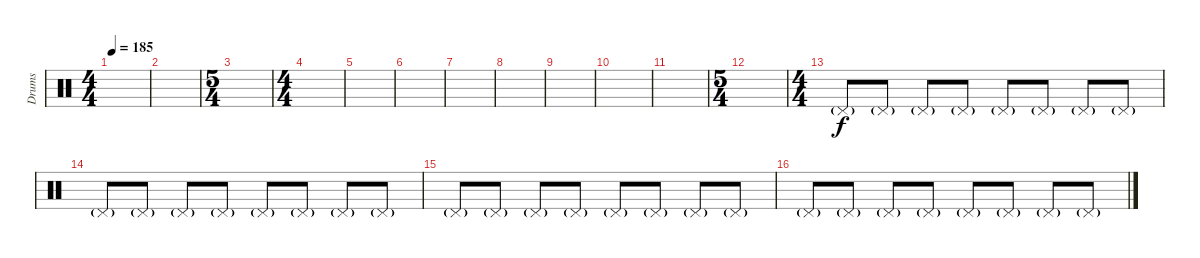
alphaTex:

\track ("Drums" "Drums") {instrument percussion}
\staff {score}
\articulation defaults
\ts (4 4)
\tempo 185
\clef neutral
\ks c
|
|
\ts (5 4)
|
\ts (4 4)
|
|
|
|
|
|
|
|
\ts (5 4)
|
\ts (4 4)
"Pedal Hi-Hat (hit)"{g}.8 "Pedal Hi-Hat (hit)"{g}.8 "Pedal Hi-Hat (hit)"{g}.8 "Pedal Hi-Hat (hit)"{g}.8 "Pedal Hi-Hat (hit)"{g}.8 "Pedal Hi-Hat (hit)"{g}.8 "Pedal Hi-Hat (hit)"{g}.8 "Pedal Hi-Hat (hit)"{g}.8 |
"Pedal Hi-Hat (hit)"{g}.8 "Pedal Hi-Hat (hit)"{g}.8 "Pedal Hi-Hat (hit)"{g}.8 "Pedal Hi-Hat (hit)"{g}.8 "Pedal Hi-Hat (hit)"{g}.8 "Pedal Hi-Hat (hit)"{g}.8 "Pedal Hi-Hat (hit)"{g}.8 "Pedal Hi-Hat (hit)"{g}.8 |
"Pedal Hi-Hat (hit)"{g}.8 "Pedal Hi-Hat (hit)"{g}.8 "Pedal Hi-Hat (hit)"{g}.8 "Pedal Hi-Hat (hit)"{g}.8 "Pedal Hi-Hat (hit)"{g}.8 "Pedal Hi-Hat (hit)"{g}.8 "Pedal Hi-Hat (hit)"{g}.8 "Pedal Hi-Hat (hit)"{g}.8 |
"Pedal Hi-Hat (hit)"{g}.8 "Pedal Hi-Hat (hit)"{g}.8 "Pedal Hi-Hat (hit)"{g}.8 "Pedal Hi-Hat (hit)"{g}.8 "Pedal Hi-Hat (hit)"{g}.8 "Pedal Hi-Hat (hit)"{g}.8 "Pedal Hi-Hat (hit)"{g}.8 "Pedal Hi-Hat (hit)"{g}.8
